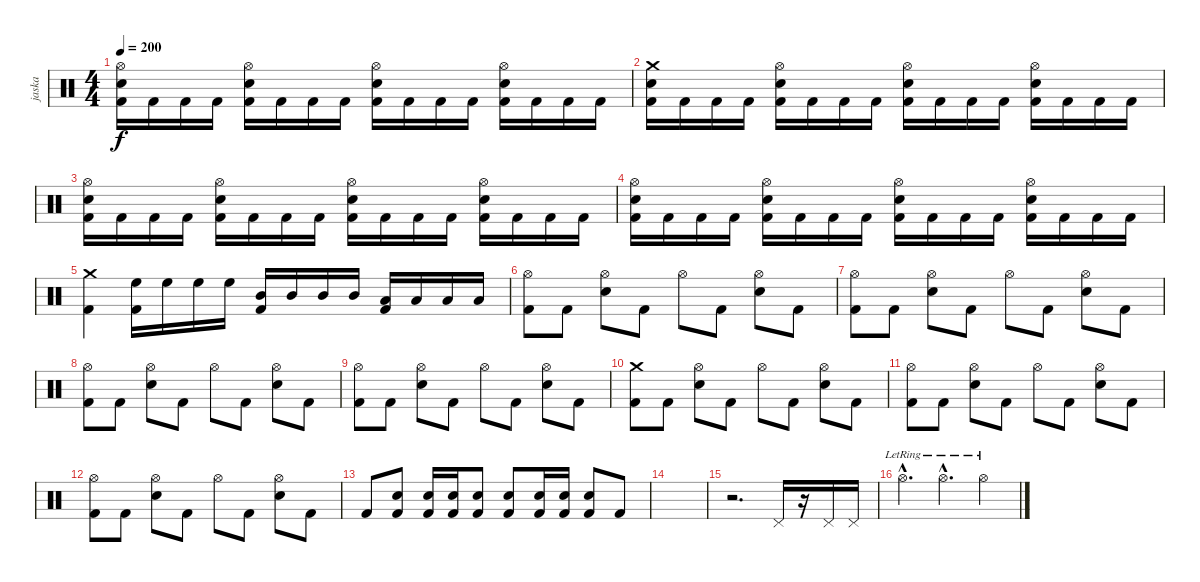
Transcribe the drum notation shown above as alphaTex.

\track ("jaska" "jaska") {instrument percussion}
\staff {score}
\articulation defaults
\ts (4 4)
\tempo 200
\clef neutral
\ks c
("Hi-Hat (open)" "Snare (hit) 2" "Kick (hit) 2").16{dy f} "Kick (hit) 2".16 "Kick (hit) 2".16 "Kick (hit) 2".16 ("Hi-Hat (open)" "Snare (hit) 2" "Kick (hit) 2").16 "Kick (hit) 2".16 "Kick (hit) 2".16 "Kick (hit) 2".16 ("Hi-Hat (open)" "Snare (hit) 2" "Kick (hit) 2").16 "Kick (hit) 2".16 "Kick (hit) 2".16 "Kick (hit) 2".16 ("Hi-Hat (open)" "Snare (hit) 2" "Kick (hit) 2").16 "Kick (hit) 2".16 "Kick (hit) 2".16 "Kick (hit) 2".16 |
("Crash medium (hit)" "Snare (hit) 2" "Kick (hit) 2").16 "Kick (hit) 2".16 "Kick (hit) 2".16 "Kick (hit) 2".16 ("Hi-Hat (open)" "Snare (hit) 2" "Kick (hit) 2").16 "Kick (hit) 2".16 "Kick (hit) 2".16 "Kick (hit) 2".16 ("Hi-Hat (open)" "Snare (hit) 2" "Kick (hit) 2").16 "Kick (hit) 2".16 "Kick (hit) 2".16 "Kick (hit) 2".16 ("Hi-Hat (open)" "Snare (hit) 2" "Kick (hit) 2").16 "Kick (hit) 2".16 "Kick (hit) 2".16 "Kick (hit) 2".16 |
("Hi-Hat (open)" "Snare (hit) 2" "Kick (hit) 2").16 "Kick (hit) 2".16 "Kick (hit) 2".16 "Kick (hit) 2".16 ("Hi-Hat (open)" "Snare (hit) 2" "Kick (hit) 2").16 "Kick (hit) 2".16 "Kick (hit) 2".16 "Kick (hit) 2".16 ("Hi-Hat (open)" "Snare (hit) 2" "Kick (hit) 2").16 "Kick (hit) 2".16 "Kick (hit) 2".16 "Kick (hit) 2".16 ("Hi-Hat (open)" "Snare (hit) 2" "Kick (hit) 2").16 "Kick (hit) 2".16 "Kick (hit) 2".16 "Kick (hit) 2".16 |
("Hi-Hat (open)" "Snare (hit) 2" "Kick (hit) 2").16 "Kick (hit) 2".16 "Kick (hit) 2".16 "Kick (hit) 2".16 ("Hi-Hat (open)" "Snare (hit) 2" "Kick (hit) 2").16 "Kick (hit) 2".16 "Kick (hit) 2".16 "Kick (hit) 2".16 ("Hi-Hat (open)" "Snare (hit) 2" "Kick (hit) 2").16 "Kick (hit) 2".16 "Kick (hit) 2".16 "Kick (hit) 2".16 ("Hi-Hat (open)" "Snare (hit) 2" "Kick (hit) 2").16 "Kick (hit) 2".16 "Kick (hit) 2".16 "Kick (hit) 2".16 |
("Crash medium (hit)" "Kick (hit) 2").4 ("High Floor Tom (hit)" "Kick (hit) 2").16 "High Floor Tom (hit)".16 "High Floor Tom (hit)".16 "High Floor Tom (hit)".16 ("Mid Tom (hit)" "Kick (hit) 2").16 "Mid Tom (hit)".16 "Mid Tom (hit)".16 "Mid Tom (hit)".16 ("Low Tom (hit)" "Kick (hit) 2").16 "Low Tom (hit)".16 "Low Tom (hit)".16 "Low Tom (hit)".16 |
("Hi-Hat (open)" "Kick (hit) 2").8 "Kick (hit) 2".8 ("Hi-Hat (open)" "Electric Snare (hit)").8 "Kick (hit) 2".8 "Hi-Hat (open)".8 "Kick (hit) 2".8 ("Hi-Hat (open)" "Electric Snare (hit)").8 "Kick (hit) 2".8 |
("Hi-Hat (open)" "Kick (hit) 2").8 "Kick (hit) 2".8 ("Hi-Hat (open)" "Electric Snare (hit)").8 "Kick (hit) 2".8 "Hi-Hat (open)".8 "Kick (hit) 2".8 ("Hi-Hat (open)" "Electric Snare (hit)").8 "Kick (hit) 2".8 |
("Hi-Hat (open)" "Kick (hit) 2").8 "Kick (hit) 2".8 ("Hi-Hat (open)" "Electric Snare (hit)").8 "Kick (hit) 2".8 "Hi-Hat (open)".8 "Kick (hit) 2".8 ("Hi-Hat (open)" "Electric Snare (hit)").8 "Kick (hit) 2".8 |
("Hi-Hat (open)" "Kick (hit) 2").8 "Kick (hit) 2".8 ("Hi-Hat (open)" "Electric Snare (hit)").8 "Kick (hit) 2".8 "Hi-Hat (open)".8 "Kick (hit) 2".8 ("Hi-Hat (open)" "Electric Snare (hit)").8 "Kick (hit) 2".8 |
("Crash medium (hit)" "Kick (hit) 2").8 "Kick (hit) 2".8 ("Hi-Hat (open)" "Electric Snare (hit)").8 "Kick (hit) 2".8 "Hi-Hat (open)".8 "Kick (hit) 2".8 ("Hi-Hat (open)" "Electric Snare (hit)").8 "Kick (hit) 2".8 |
("Hi-Hat (open)" "Kick (hit) 2").8 "Kick (hit) 2".8 ("Hi-Hat (open)" "Electric Snare (hit)").8 "Kick (hit) 2".8 "Hi-Hat (open)".8 "Kick (hit) 2".8 ("Hi-Hat (open)" "Electric Snare (hit)").8 "Kick (hit) 2".8 |
("Hi-Hat (open)" "Kick (hit) 2").8 "Kick (hit) 2".8 ("Hi-Hat (open)" "Electric Snare (hit)").8 "Kick (hit) 2".8 "Hi-Hat (open)".8 "Kick (hit) 2".8 ("Hi-Hat (open)" "Electric Snare (hit)").8 "Kick (hit) 2".8 |
"Kick (hit) 2".8 ("Electric Snare (hit)" "Kick (hit) 2").8 ("Electric Snare (hit)" "Kick (hit) 2").16 ("Electric Snare (hit)" "Kick (hit) 2").16 ("Electric Snare (hit)" "Kick (hit) 2").8 ("Electric Snare (hit)" "Kick (hit) 2").8 ("Electric Snare (hit)" "Kick (hit) 2").16 ("Electric Snare (hit)" "Kick (hit) 2").16 ("Electric Snare (hit)" "Kick (hit) 2").8 "Kick (hit) 2".8 |
|
r.2{d} "Pedal Hi-Hat (hit)".16{volume 10} r.16 "Pedal Hi-Hat (hit)".16 "Pedal Hi-Hat (hit)".16 |
"Hi-Hat (open)"{hac lr}.4{d} "Hi-Hat (open)"{hac lr}.4{d} "Hi-Hat (open)"{lr}.4
